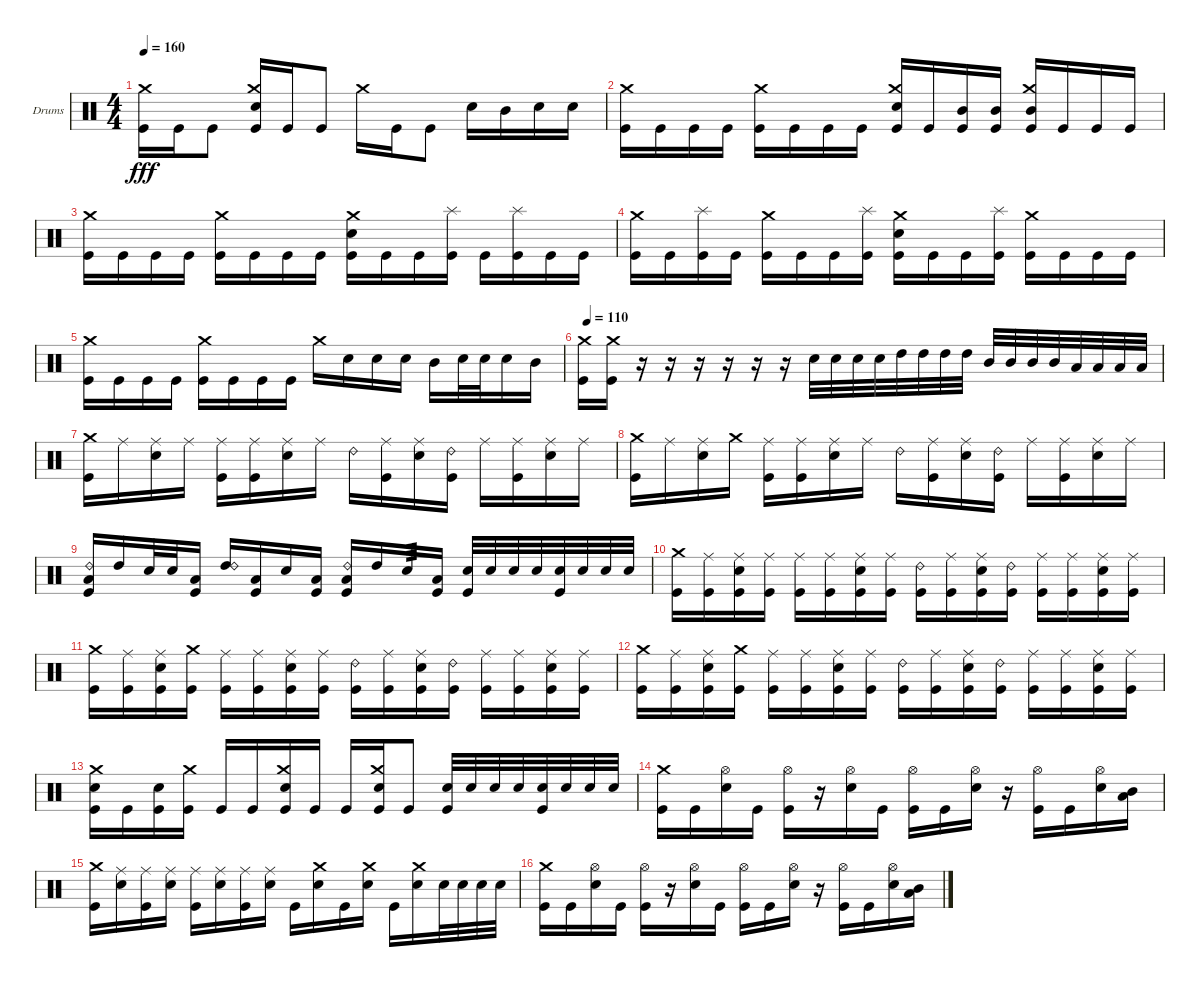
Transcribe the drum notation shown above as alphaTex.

\defaultSystemsLayout 4
\bracketExtendMode groupsimilarinstruments
\firstSystemTrackNameOrientation horizontal
\otherSystemsTrackNameOrientation horizontal
\track ("Nikita Korzhov" "Drums") {instrument percussion}
\staff {score}
\articulation defaults
\ts (4 4)
\tempo 160
\clef neutral
\scale
0.333333
\ks c
("Kick (hit)" "Crash medium (hit)").16{dy fff} "Kick (hit)".16 "Kick (hit)".8 ("Kick (hit)" "Crash medium (hit)" "Snare (hit) 2").16 "Kick (hit)".16 "Kick (hit)".8 "Crash medium (hit)".16 "Kick (hit)".16 "Kick (hit)".8 "Snare (hit) 2".16 "Mid Tom (hit)".16 "Snare (hit) 2".16 "Snare (hit) 2".16 |
\scale
0.333333 ("Kick (hit)" "Crash medium (hit)").16 "Kick (hit)".16 "Kick (hit)".16 "Kick (hit)".16 ("Crash medium (hit)" "Kick (hit)").16 "Kick (hit)".16 "Kick (hit)".16 "Kick (hit)".16 ("Kick (hit)" "Crash medium (hit)" "Snare (hit) 2").16 "Kick (hit)".16 ("Kick (hit)" "Mid Tom (hit)").16 ("Kick (hit)" "Mid Tom (hit)").16 ("Kick (hit)" "Crash medium (hit)" "Mid Tom (hit)").16 "Kick (hit)".16 "Kick (hit)".16 "Kick (hit)".16 |
\scale
0.333333 ("Kick (hit)" "Crash medium (hit)").16 "Kick (hit)".16 "Kick (hit)".16 "Kick (hit)".16 ("Kick (hit)" "Crash medium (hit)").16 "Kick (hit)".16 "Kick (hit)".16 "Kick (hit)".16 ("Kick (hit)" "Crash medium (hit)" "Snare (hit) 2").16 "Kick (hit)".16 "Kick (hit)".16 ("Kick (hit)" "Splash (hit)").16 "Kick (hit)".16 ("Kick (hit)" "Splash (hit)").16 "Kick (hit)".16 "Kick (hit)".16 |
\scale
0.333333 ("Kick (hit)" "Crash medium (hit)").16 "Kick (hit)".16 ("Kick (hit)" "Splash (hit)").16 "Kick (hit)".16 ("Kick (hit)" "Crash medium (hit)").16 "Kick (hit)".16 "Kick (hit)".16 ("Kick (hit)" "Splash (hit)").16 ("Kick (hit)" "Crash medium (hit)" "Snare (hit) 2").16 "Kick (hit)".16 "Kick (hit)".16 ("Kick (hit)" "Splash (hit)").16 ("Kick (hit)" "Crash medium (hit)").16 "Kick (hit)".16 "Kick (hit)".16 "Kick (hit)".16 |
\scale
0.333333 ("Kick (hit)" "Crash medium (hit)").16 "Kick (hit)".16 "Kick (hit)".16 "Kick (hit)".16 ("Kick (hit)" "Crash medium (hit)").16 "Kick (hit)".16 "Kick (hit)".16 "Kick (hit)".16 "Crash medium (hit)".16 "Snare (hit) 2".16 "Snare (hit) 2".16 "Snare (hit) 2".16 "Mid Tom (hit)".16 "Snare (hit) 2".32 "Snare (hit) 2".32 "Snare (hit) 2".16 "Mid Tom (hit)".16 |
\tempo (110 0.00625)
\scale
0.333333 ("Kick (hit)" "Crash medium (hit)").16 ("Kick (hit)" "Crash medium (hit)").16 r.16 r.16 r.16 r.16 r.16 r.16 "Snare (hit) 2".32 "Snare (hit) 2".32 "Snare (hit) 2".32 "Snare (hit) 2".32 "High Tom (hit)".32 "High Tom (hit)".32 "High Tom (hit)".32 "High Tom (hit)".32 "Mid Tom (hit)".32 "Mid Tom (hit)".32 "Mid Tom (hit)".32 "Mid Tom (hit)".32 "Low Tom (hit)".32 "Low Tom (hit)".32 "Low Tom (hit)".32 "Low Tom (hit)".32 |
\scale
0.333333 ("Crash medium (hit)" "Kick (hit)").16 "Ride (middle)".16 ("Ride (middle)" "Snare (hit) 2").16 "Ride (middle)".16 ("Ride (middle)" "Kick (hit)").16 ("Ride (middle)" "Kick (hit)").16 ("Ride (middle)" "Snare (hit) 2").16 "Ride (middle)".16 "Ride (bell) 2".16 ("Ride (middle)" "Kick (hit)").16 ("Ride (middle)" "Snare (hit) 2").16 ("Ride (bell) 2" "Kick (hit)").16 "Ride (middle)".16 ("Ride (middle)" "Kick (hit)").16 ("Ride (middle)" "Snare (hit) 2").16 "Ride (middle)".16 |
\scale
0.333333 ("Crash medium (hit)" "Kick (hit)").16 "Ride (middle)".16 ("Ride (middle)" "Snare (hit) 2").16 "Crash medium (hit)".16 ("Ride (middle)" "Kick (hit)").16 ("Ride (middle)" "Kick (hit)").16 ("Ride (middle)" "Snare (hit) 2").16 "Ride (middle)".16 "Ride (bell) 2".16 ("Ride (middle)" "Kick (hit)").16 ("Ride (middle)" "Snare (hit) 2").16 ("Ride (bell) 2" "Kick (hit)").16 "Ride (middle)".16 ("Ride (middle)" "Kick (hit)").16 ("Ride (middle)" "Snare (hit) 2").16 "Ride (middle)".16 |
\scale
0.333333 ("Kick (hit)" "Low Tom (hit)" "Ride (bell) 2").16 "High Tom (hit)".16 "Snare (hit) 2".32 "Snare (hit) 2".32 ("Kick (hit)" "Low Tom (hit)").16 ("High Tom (hit)" "Ride (bell) 2").16 ("Kick (hit)" "Low Tom (hit)").16 "Snare (hit) 2".16 ("Kick (hit)" "Low Tom (hit)").16 ("Kick (hit)" "Low Tom (hit)" "Ride (bell) 2").16 "High Tom (hit)".16 "Snare (hit) 2".16{tp 3} ("Kick (hit)" "Low Tom (hit)").16 ("Snare (hit) 2" "Kick (hit)").32 "Snare (hit) 2".32 "Snare (hit) 2".32 "Snare (hit) 2".32 ("Snare (hit) 2" "Kick (hit)").32 "Snare (hit) 2".32 "Snare (hit) 2".32 "Snare (hit) 2".32 |
\scale
0.333333 ("Crash medium (hit)" "Kick (hit)").16 ("Ride (middle)" "Kick (hit)").16 ("Ride (middle)" "Snare (hit) 2" "Kick (hit)").16 ("Ride (middle)" "Kick (hit)").16 ("Ride (middle)" "Kick (hit)").16 ("Ride (middle)" "Kick (hit)").16 ("Ride (middle)" "Snare (hit) 2" "Kick (hit)").16 ("Ride (middle)" "Kick (hit)").16 ("Ride (bell) 2" "Kick (hit)").16 ("Ride (middle)" "Kick (hit)").16 ("Ride (middle)" "Snare (hit) 2" "Kick (hit)").16 ("Ride (bell) 2" "Kick (hit)").16 ("Ride (middle)" "Kick (hit)").16 ("Ride (middle)" "Kick (hit)").16 ("Ride (middle)" "Snare (hit) 2" "Kick (hit)").16 ("Ride (middle)" "Kick (hit)").16 |
\scale
0.333333 ("Crash medium (hit)" "Kick (hit)").16 ("Ride (middle)" "Kick (hit)").16 ("Ride (middle)" "Snare (hit) 2" "Kick (hit)").16 ("Crash medium (hit)" "Kick (hit)").16 ("Ride (middle)" "Kick (hit)").16 ("Ride (middle)" "Kick (hit)").16 ("Ride (middle)" "Snare (hit) 2" "Kick (hit)").16 ("Ride (middle)" "Kick (hit)").16 ("Ride (bell) 2" "Kick (hit)").16 ("Ride (middle)" "Kick (hit)").16 ("Ride (middle)" "Snare (hit) 2" "Kick (hit)").16 ("Ride (bell) 2" "Kick (hit)").16 ("Ride (middle)" "Kick (hit)").16 ("Ride (middle)" "Kick (hit)").16 ("Ride (middle)" "Snare (hit) 2" "Kick (hit)").16 ("Ride (middle)" "Kick (hit)").16 |
\scale
0.333333 ("Crash medium (hit)" "Kick (hit)").16 ("Ride (middle)" "Kick (hit)").16 ("Ride (middle)" "Snare (hit) 2" "Kick (hit)").16 ("Crash medium (hit)" "Kick (hit)").16 ("Ride (middle)" "Kick (hit)").16 ("Ride (middle)" "Kick (hit)").16 ("Ride (middle)" "Snare (hit) 2" "Kick (hit)").16 ("Ride (middle)" "Kick (hit)").16 ("Ride (bell) 2" "Kick (hit)").16 ("Ride (middle)" "Kick (hit)").16 ("Ride (middle)" "Snare (hit) 2" "Kick (hit)").16 ("Ride (bell) 2" "Kick (hit)").16 ("Ride (middle)" "Kick (hit)").16 ("Ride (middle)" "Kick (hit)").16 ("Ride (middle)" "Snare (hit) 2" "Kick (hit)").16 ("Ride (middle)" "Kick (hit)").16 |
\scale
0.333333 ("Snare (hit) 2" "Crash medium (hit)" "Kick (hit)").16 "Kick (hit)".16 ("Kick (hit)" "Snare (hit) 2").16 ("Crash medium (hit)" "Kick (hit)").16 "Kick (hit)".16 "Kick (hit)".16 ("Snare (hit) 2" "Crash medium (hit)" "Kick (hit)").16 "Kick (hit)".16 "Kick (hit)".16 ("Snare (hit) 2" "Crash medium (hit)" "Kick (hit)").16 "Kick (hit)".8 ("Snare (hit) 2" "Kick (hit)").32 "Snare (hit) 2".32 "Snare (hit) 2".32 "Snare (hit) 2".32 ("Snare (hit) 2" "Kick (hit)").32 "Snare (hit) 2".32 "Snare (hit) 2".32 "Snare (hit) 2".32 |
\scale
0.333333 ("Kick (hit)" "Crash medium (hit)").16 "Kick (hit)".16 ("Snare (hit) 2" "Hi-Hat (open)").16 "Kick (hit)".16 ("Kick (hit)" "Hi-Hat (open)").16 r.16 ("Snare (hit) 2" "Hi-Hat (open)").16 "Kick (hit)".16 ("Kick (hit)" "Hi-Hat (open)").16 "Kick (hit)".16 ("Snare (hit) 2" "Hi-Hat (open)").16 r.16 ("Hi-Hat (open)" "Kick (hit)").16 "Kick (hit)".16 ("Snare (hit) 2" "Hi-Hat (open)").16 ("Mid Tom (hit)" "Low Tom (hit)").16 |
\scale
0.333333 ("Kick (hit)" "Crash medium (hit)").16 ("Snare (hit) 2" "Ride (middle)").16 ("Kick (hit)" "Ride (middle)").16 ("Snare (hit) 2" "Ride (middle)").16 ("Kick (hit)" "Ride (middle)").16 ("Snare (hit) 2" "Ride (middle)").16 ("Kick (hit)" "Ride (middle)").16 ("Snare (hit) 2" "Ride (middle)").16 "Kick (hit)".16 ("Snare (hit) 2" "Crash medium (hit)").16 "Kick (hit)".16 ("Snare (hit) 2" "Crash medium (hit)").16 "Kick (hit)".16 ("Snare (hit) 2" "Crash medium (hit)").16 "Snare (hit) 2".32 "Snare (hit) 2".32 "Snare (hit) 2".32 "Snare (hit) 2".32 |
\scale
0.333333 ("Kick (hit)" "Crash medium (hit)").16 "Kick (hit)".16 ("Snare (hit) 2" "Hi-Hat (open)").16 "Kick (hit)".16 ("Kick (hit)" "Hi-Hat (open)").16 r.16 ("Snare (hit) 2" "Hi-Hat (open)").16 "Kick (hit)".16 ("Kick (hit)" "Hi-Hat (open)").16 "Kick (hit)".16 ("Snare (hit) 2" "Hi-Hat (open)").16 r.16 ("Hi-Hat (open)" "Kick (hit)").16 "Kick (hit)".16 ("Snare (hit) 2" "Hi-Hat (open)").16 ("Mid Tom (hit)" "Low Tom (hit)").16
